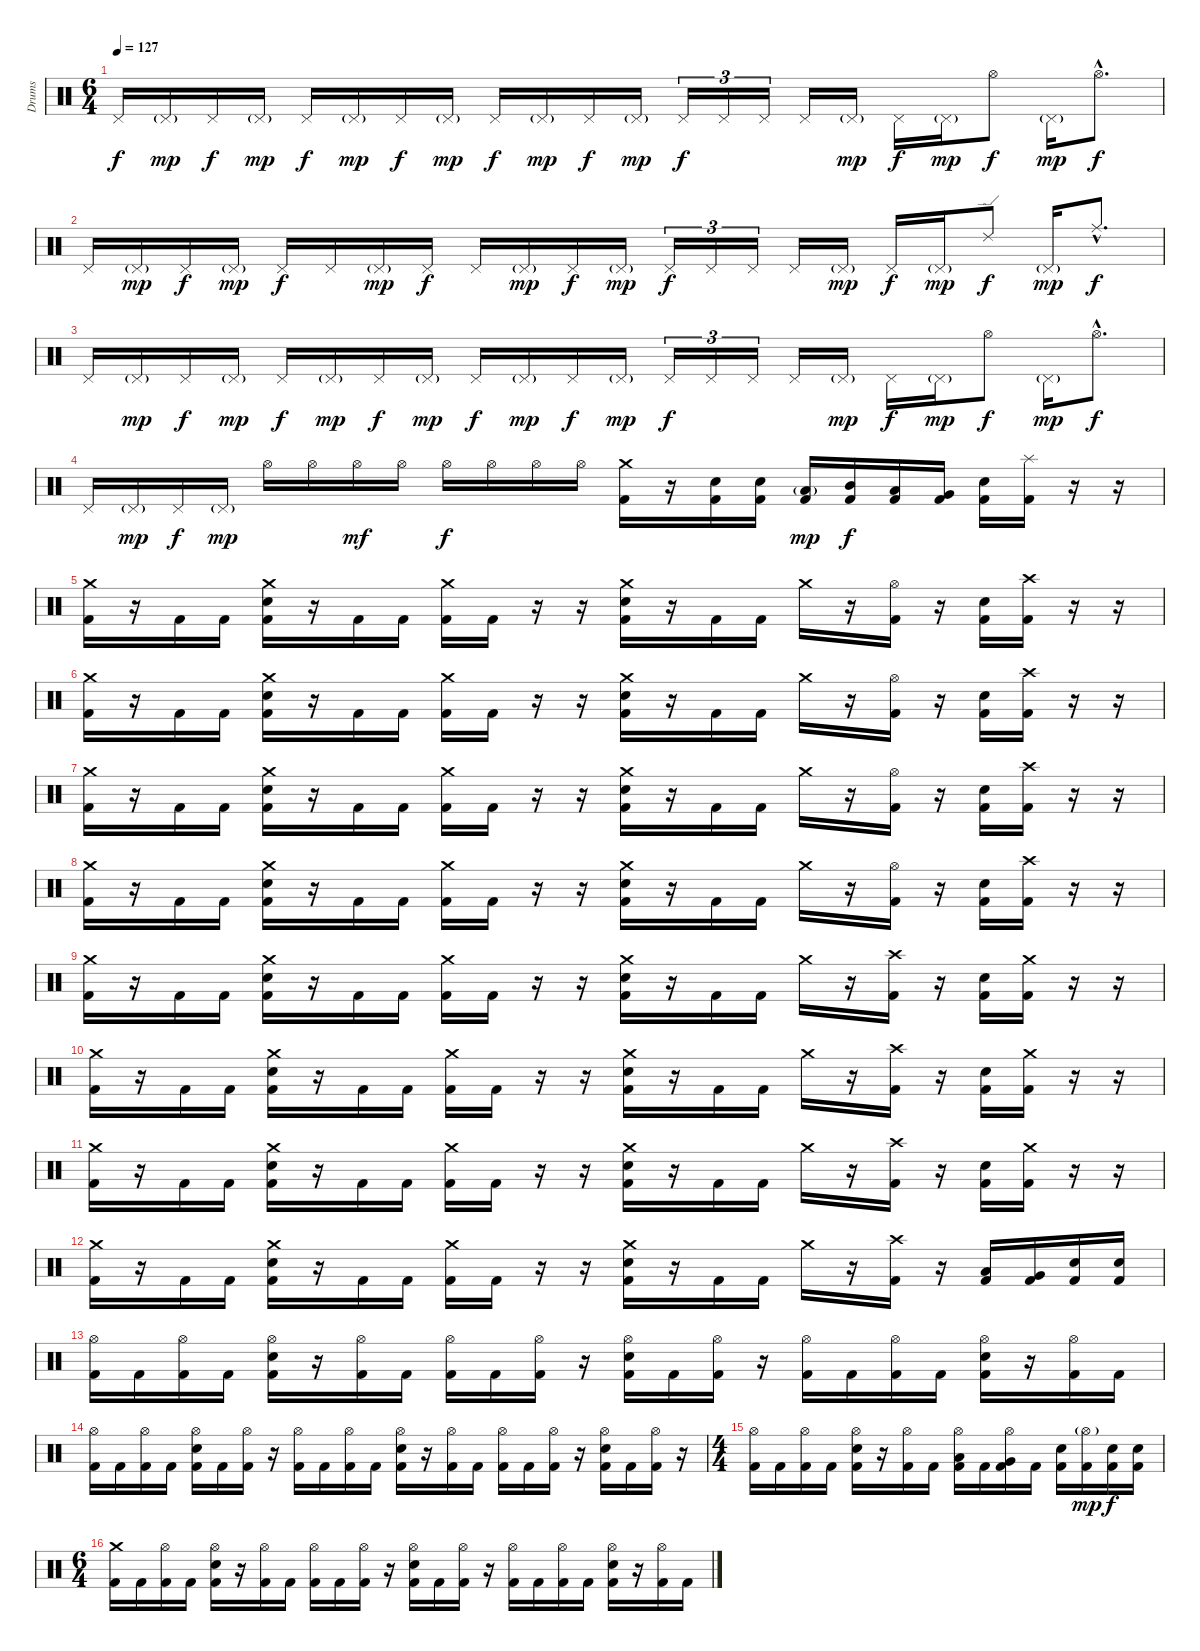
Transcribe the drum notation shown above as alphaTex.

\track ("Drums" "Drums") {instrument percussion}
\staff {score}
\articulation defaults
\ts (6 4)
\tempo 127
\clef neutral
\ks c "Pedal Hi-Hat (hit)".16{dy f} "Pedal Hi-Hat (hit)"{g}.16{dy mp} "Pedal Hi-Hat (hit)".16{dy f} "Pedal Hi-Hat (hit)"{g}.16{dy mp} "Pedal Hi-Hat (hit)".16{dy f} "Pedal Hi-Hat (hit)"{g}.16{dy mp} "Pedal Hi-Hat (hit)".16{dy f} "Pedal Hi-Hat (hit)"{g}.16{dy mp} "Pedal Hi-Hat (hit)".16{dy f} "Pedal Hi-Hat (hit)"{g}.16{dy mp} "Pedal Hi-Hat (hit)".16{dy f} "Pedal Hi-Hat (hit)"{g}.16{dy mp} "Pedal Hi-Hat (hit)".16{tu (3 2) dy f} "Pedal Hi-Hat (hit)".16{tu (3 2)} "Pedal Hi-Hat (hit)".16{tu (3 2)} "Pedal Hi-Hat (hit)".16 "Pedal Hi-Hat (hit)"{g}.16{dy mp} "Pedal Hi-Hat (hit)".16{dy f} "Pedal Hi-Hat (hit)"{g}.16{dy mp} "Hi-Hat (open)".8{dy f} "Pedal Hi-Hat (hit)"{g}.16{dy mp} "Hi-Hat (open)"{hac}.8{d dy f}
|
"Pedal Hi-Hat (hit)".16 "Pedal Hi-Hat (hit)"{g}.16{dy mp} "Pedal Hi-Hat (hit)".16{dy f} "Pedal Hi-Hat (hit)"{g}.16{dy mp} "Pedal Hi-Hat (hit)".16{dy f} "Pedal Hi-Hat (hit)".16 "Pedal Hi-Hat (hit)"{g}.16{dy mp} "Pedal Hi-Hat (hit)".16{dy f} "Pedal Hi-Hat (hit)".16 "Pedal Hi-Hat (hit)"{g}.16{dy mp} "Pedal Hi-Hat (hit)".16{dy f} "Pedal Hi-Hat (hit)"{g}.16{dy mp} "Pedal Hi-Hat (hit)".16{tu (3 2) dy f} "Pedal Hi-Hat (hit)".16{tu (3 2)} "Pedal Hi-Hat (hit)".16{tu (3 2)} "Pedal Hi-Hat (hit)".16 "Pedal Hi-Hat (hit)"{g}.16{dy mp} "Pedal Hi-Hat (hit)".16{dy f} "Pedal Hi-Hat (hit)"{g}.16{dy mp} "Ride (edge) 2".8{dy f} "Pedal Hi-Hat (hit)"{g}.16{dy mp} "Ride (middle)"{hac}.8{d dy f} |
"Pedal Hi-Hat (hit)".16 "Pedal Hi-Hat (hit)"{g}.16{dy mp} "Pedal Hi-Hat (hit)".16{dy f} "Pedal Hi-Hat (hit)"{g}.16{dy mp} "Pedal Hi-Hat (hit)".16{dy f} "Pedal Hi-Hat (hit)"{g}.16{dy mp} "Pedal Hi-Hat (hit)".16{dy f} "Pedal Hi-Hat (hit)"{g}.16{dy mp} "Pedal Hi-Hat (hit)".16{dy f} "Pedal Hi-Hat (hit)"{g}.16{dy mp} "Pedal Hi-Hat (hit)".16{dy f} "Pedal Hi-Hat (hit)"{g}.16{dy mp} "Pedal Hi-Hat (hit)".16{tu (3 2) dy f} "Pedal Hi-Hat (hit)".16{tu (3 2)} "Pedal Hi-Hat (hit)".16{tu (3 2)} "Pedal Hi-Hat (hit)".16 "Pedal Hi-Hat (hit)"{g}.16{dy mp} "Pedal Hi-Hat (hit)".16{dy f} "Pedal Hi-Hat (hit)"{g}.16{dy mp} "Hi-Hat (open)".8{dy f} "Pedal Hi-Hat (hit)"{g}.16{dy mp} "Hi-Hat (open)"{hac}.8{d dy f} |
"Pedal Hi-Hat (hit)".16 "Pedal Hi-Hat (hit)"{g}.16{dy mp} "Pedal Hi-Hat (hit)".16{dy f} "Pedal Hi-Hat (hit)"{g}.16{dy mp} "Hi-Hat (open)".16 "Hi-Hat (open)".16 "Hi-Hat (open)".16{dy mf} "Hi-Hat (open)".16 "Hi-Hat (open)".16{dy f} "Hi-Hat (open)".16 "Hi-Hat (open)".16 "Hi-Hat (open)".16 ("Crash medium (hit)" "Kick (hit) 2").16 r.16 ("Electric Snare (hit)" "Kick (hit) 2").16 ("Electric Snare (hit)" "Kick (hit) 2").16 ("Low Tom (hit)"{g} "Kick (hit) 2").16{dy mp} ("Mid Tom (hit)" "Kick (hit) 2").16{dy f} ("Low Tom (hit)" "Kick (hit) 2").16 ("Very Low Tom (hit)" "Kick (hit) 2").16 ("Electric Snare (hit)" "Kick (hit) 2").16 ("Splash (hit)" "Kick (hit) 2").16 r.16 r.16 |
\section ("" "")
("Crash medium (hit)" "Kick (hit) 2").16 r.16 "Kick (hit) 2".16 "Kick (hit) 2".16 ("Crash medium (hit)" "Electric Snare (hit)" "Kick (hit) 2").16 r.16 "Kick (hit) 2".16 "Kick (hit) 2".16 ("Crash medium (hit)" "Kick (hit) 2").16 "Kick (hit) 2".16 r.16 r.16 ("Crash medium (hit)" "Electric Snare (hit)" "Kick (hit) 2").16 r.16 "Kick (hit) 2".16 "Kick (hit) 2".16 "Crash medium (hit)".16 r.16 ("Hi-Hat (open)" "Kick (hit) 2").16 r.16 ("Electric Snare (hit)" "Kick (hit) 2").16 ("Crash high (hit)" "Kick (hit) 2").16 r.16 r.16 |
("Crash medium (hit)" "Kick (hit) 2").16 r.16 "Kick (hit) 2".16 "Kick (hit) 2".16 ("Crash medium (hit)" "Electric Snare (hit)" "Kick (hit) 2").16 r.16 "Kick (hit) 2".16 "Kick (hit) 2".16 ("Crash medium (hit)" "Kick (hit) 2").16 "Kick (hit) 2".16 r.16 r.16 ("Crash medium (hit)" "Electric Snare (hit)" "Kick (hit) 2").16 r.16 "Kick (hit) 2".16 "Kick (hit) 2".16 "Crash medium (hit)".16 r.16 ("Hi-Hat (open)" "Kick (hit) 2").16 r.16 ("Electric Snare (hit)" "Kick (hit) 2").16 ("Crash high (hit)" "Kick (hit) 2").16 r.16 r.16 |
("Crash medium (hit)" "Kick (hit) 2").16 r.16 "Kick (hit) 2".16 "Kick (hit) 2".16 ("Crash medium (hit)" "Electric Snare (hit)" "Kick (hit) 2").16 r.16 "Kick (hit) 2".16 "Kick (hit) 2".16 ("Crash medium (hit)" "Kick (hit) 2").16 "Kick (hit) 2".16 r.16 r.16 ("Crash medium (hit)" "Electric Snare (hit)" "Kick (hit) 2").16 r.16 "Kick (hit) 2".16 "Kick (hit) 2".16 "Crash medium (hit)".16 r.16 ("Hi-Hat (open)" "Kick (hit) 2").16 r.16 ("Electric Snare (hit)" "Kick (hit) 2").16 ("Crash high (hit)" "Kick (hit) 2").16 r.16 r.16 |
("Crash medium (hit)" "Kick (hit) 2").16 r.16 "Kick (hit) 2".16 "Kick (hit) 2".16 ("Crash medium (hit)" "Electric Snare (hit)" "Kick (hit) 2").16 r.16 "Kick (hit) 2".16 "Kick (hit) 2".16 ("Crash medium (hit)" "Kick (hit) 2").16 "Kick (hit) 2".16 r.16 r.16 ("Crash medium (hit)" "Electric Snare (hit)" "Kick (hit) 2").16 r.16 "Kick (hit) 2".16 "Kick (hit) 2".16 "Crash medium (hit)".16 r.16 ("Hi-Hat (open)" "Kick (hit) 2").16 r.16 ("Electric Snare (hit)" "Kick (hit) 2").16 ("Crash high (hit)" "Kick (hit) 2").16 r.16 r.16 |
("Crash medium (hit)" "Kick (hit) 2").16 r.16 "Kick (hit) 2".16 "Kick (hit) 2".16 ("Crash medium (hit)" "Electric Snare (hit)" "Kick (hit) 2").16 r.16 "Kick (hit) 2".16 "Kick (hit) 2".16 ("Crash medium (hit)" "Kick (hit) 2").16 "Kick (hit) 2".16 r.16 r.16 ("Crash medium (hit)" "Electric Snare (hit)" "Kick (hit) 2").16 r.16 "Kick (hit) 2".16 "Kick (hit) 2".16 "Crash medium (hit)".16 r.16 ("Crash high (hit)" "Kick (hit) 2").16 r.16 ("Electric Snare (hit)" "Kick (hit) 2").16 ("Crash medium (hit)" "Kick (hit) 2").16 r.16 r.16 |
("Crash medium (hit)" "Kick (hit) 2").16 r.16 "Kick (hit) 2".16 "Kick (hit) 2".16 ("Crash medium (hit)" "Electric Snare (hit)" "Kick (hit) 2").16 r.16 "Kick (hit) 2".16 "Kick (hit) 2".16 ("Crash medium (hit)" "Kick (hit) 2").16 "Kick (hit) 2".16 r.16 r.16 ("Crash medium (hit)" "Electric Snare (hit)" "Kick (hit) 2").16 r.16 "Kick (hit) 2".16 "Kick (hit) 2".16 "Crash medium (hit)".16 r.16 ("Crash high (hit)" "Kick (hit) 2").16 r.16 ("Electric Snare (hit)" "Kick (hit) 2").16 ("Crash medium (hit)" "Kick (hit) 2").16 r.16 r.16 |
("Crash medium (hit)" "Kick (hit) 2").16 r.16 "Kick (hit) 2".16 "Kick (hit) 2".16 ("Crash medium (hit)" "Electric Snare (hit)" "Kick (hit) 2").16 r.16 "Kick (hit) 2".16 "Kick (hit) 2".16 ("Crash medium (hit)" "Kick (hit) 2").16 "Kick (hit) 2".16 r.16 r.16 ("Crash medium (hit)" "Electric Snare (hit)" "Kick (hit) 2").16 r.16 "Kick (hit) 2".16 "Kick (hit) 2".16 "Crash medium (hit)".16 r.16 ("Crash high (hit)" "Kick (hit) 2").16 r.16 ("Electric Snare (hit)" "Kick (hit) 2").16 ("Crash medium (hit)" "Kick (hit) 2").16 r.16 r.16 |
("Crash medium (hit)" "Kick (hit) 2").16 r.16 "Kick (hit) 2".16 "Kick (hit) 2".16 ("Crash medium (hit)" "Electric Snare (hit)" "Kick (hit) 2").16 r.16 "Kick (hit) 2".16 "Kick (hit) 2".16 ("Crash medium (hit)" "Kick (hit) 2").16 "Kick (hit) 2".16 r.16 r.16 ("Crash medium (hit)" "Electric Snare (hit)" "Kick (hit) 2").16 r.16 "Kick (hit) 2".16 "Kick (hit) 2".16 "Crash medium (hit)".16 r.16 ("Crash high (hit)" "Kick (hit) 2").16 r.16 ("Low Tom (hit)" "Kick (hit) 2").16 ("Very Low Tom (hit)" "Kick (hit) 2").16 ("Electric Snare (hit)" "Kick (hit) 2").16 ("Electric Snare (hit)" "Kick (hit) 2").16 |
\section ("" "")
("Hi-Hat (open)" "Kick (hit) 2").16 "Kick (hit) 2".16 ("Hi-Hat (open)" "Kick (hit) 2").16 "Kick (hit) 2".16 ("Hi-Hat (open)" "Electric Snare (hit)" "Kick (hit) 2").16 r.16 ("Hi-Hat (open)" "Kick (hit) 2").16 "Kick (hit) 2".16 ("Hi-Hat (open)" "Kick (hit) 2").16 "Kick (hit) 2".16 ("Hi-Hat (open)" "Kick (hit) 2").16 r.16 ("Hi-Hat (open)" "Electric Snare (hit)" "Kick (hit) 2").16 "Kick (hit) 2".16 ("Hi-Hat (open)" "Kick (hit) 2").16 r.16 ("Hi-Hat (open)" "Kick (hit) 2").16 "Kick (hit) 2".16 ("Hi-Hat (open)" "Kick (hit) 2").16 "Kick (hit) 2".16 ("Hi-Hat (open)" "Electric Snare (hit)" "Kick (hit) 2").16 r.16 ("Hi-Hat (open)" "Kick (hit) 2").16 "Kick (hit) 2".16 |
("Hi-Hat (open)" "Kick (hit) 2").16 "Kick (hit) 2".16 ("Hi-Hat (open)" "Kick (hit) 2").16 "Kick (hit) 2".16 ("Hi-Hat (open)" "Electric Snare (hit)" "Kick (hit) 2").16 "Kick (hit) 2".16 ("Hi-Hat (open)" "Kick (hit) 2").16 r.16 ("Hi-Hat (open)" "Kick (hit) 2").16 "Kick (hit) 2".16 ("Hi-Hat (open)" "Kick (hit) 2").16 "Kick (hit) 2".16 ("Hi-Hat (open)" "Electric Snare (hit)" "Kick (hit) 2").16 r.16 ("Hi-Hat (open)" "Kick (hit) 2").16 "Kick (hit) 2".16 ("Hi-Hat (open)" "Kick (hit) 2").16 "Kick (hit) 2".16 ("Hi-Hat (open)" "Kick (hit) 2").16 r.16 ("Hi-Hat (open)" "Electric Snare (hit)" "Kick (hit) 2").16 "Kick (hit) 2".16 ("Hi-Hat (open)" "Kick (hit) 2").16 r.16 |
\ts (4 4)
("Hi-Hat (open)" "Kick (hit) 2").16 "Kick (hit) 2".16 ("Hi-Hat (open)" "Kick (hit) 2").16 "Kick (hit) 2".16 ("Hi-Hat (open)" "Electric Snare (hit)" "Kick (hit) 2").16 r.16 ("Hi-Hat (open)" "Kick (hit) 2").16 "Kick (hit) 2".16 ("Hi-Hat (open)" "Low Tom (hit)" "Kick (hit) 2").16 "Kick (hit) 2".16 ("Hi-Hat (open)" "Very Low Tom (hit)" "Kick (hit) 2").16 "Kick (hit) 2".16 ("Electric Snare (hit)" "Kick (hit) 2").16 ("Hi-Hat (open)"{g} "Kick (hit) 2").16{dy mp} ("Electric Snare (hit)" "Kick (hit) 2").16{dy f} ("Electric Snare (hit)" "Kick (hit) 2").16 |
\ts (6 4)
("Crash medium (hit)" "Kick (hit) 2").16 "Kick (hit) 2".16 ("Hi-Hat (open)" "Kick (hit) 2").16 "Kick (hit) 2".16 ("Hi-Hat (open)" "Electric Snare (hit)" "Kick (hit) 2").16 r.16 ("Hi-Hat (open)" "Kick (hit) 2").16 "Kick (hit) 2".16 ("Hi-Hat (open)" "Kick (hit) 2").16 "Kick (hit) 2".16 ("Hi-Hat (open)" "Kick (hit) 2").16 r.16 ("Hi-Hat (open)" "Electric Snare (hit)" "Kick (hit) 2").16 "Kick (hit) 2".16 ("Hi-Hat (open)" "Kick (hit) 2").16 r.16 ("Hi-Hat (open)" "Kick (hit) 2").16 "Kick (hit) 2".16 ("Hi-Hat (open)" "Kick (hit) 2").16 "Kick (hit) 2".16 ("Hi-Hat (open)" "Electric Snare (hit)" "Kick (hit) 2").16 r.16 ("Hi-Hat (open)" "Kick (hit) 2").16 "Kick (hit) 2".16
